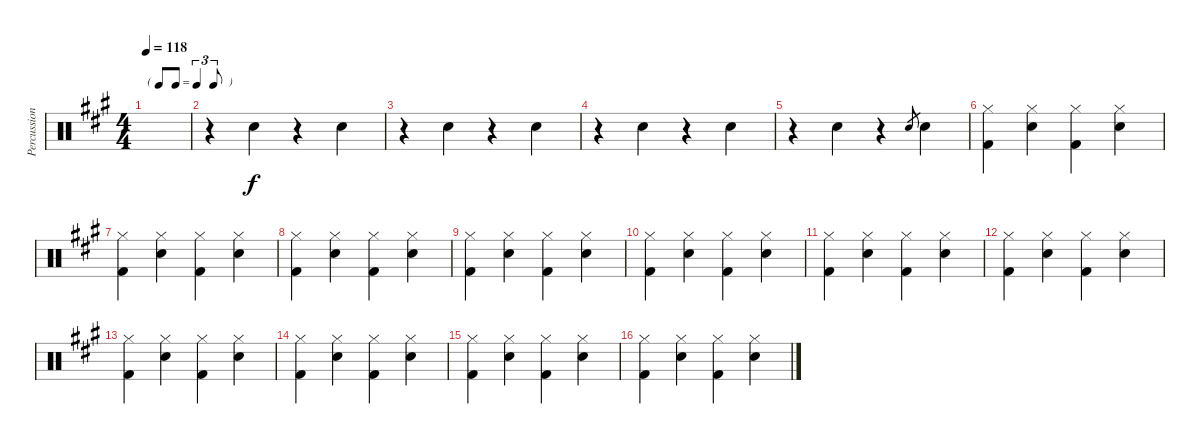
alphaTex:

\track ("Percussion" "Percussion") {instrument percussion}
\staff {score}
\articulation defaults
\ts (4 4)
\tf triplet8th
\tempo 118
\clef neutral
\ks a
|
r.4 "Snare (hit) 2".4 r.4 "Snare (hit) 2".4 |
r.4 "Snare (hit) 2".4 r.4 "Snare (hit) 2".4 |
r.4 "Snare (hit) 2".4 r.4 "Snare (hit) 2".4 |
r.4 "Snare (hit) 2".4 r.4 "Snare (hit) 2".8{gr} "Snare (hit) 2".4 |
("Hi-Hat (closed)" "Kick (hit) 2").4 ("Hi-Hat (closed)" "Snare (hit) 2").4 ("Hi-Hat (closed)" "Kick (hit) 2").4 ("Hi-Hat (closed)" "Snare (hit) 2").4 |
("Hi-Hat (closed)" "Kick (hit) 2").4 ("Hi-Hat (closed)" "Snare (hit) 2").4 ("Hi-Hat (closed)" "Kick (hit) 2").4 ("Hi-Hat (closed)" "Snare (hit) 2").4 |
("Hi-Hat (closed)" "Kick (hit) 2").4 ("Hi-Hat (closed)" "Snare (hit) 2").4 ("Hi-Hat (closed)" "Kick (hit) 2").4 ("Hi-Hat (closed)" "Snare (hit) 2").4 |
("Hi-Hat (closed)" "Kick (hit) 2").4 ("Hi-Hat (closed)" "Snare (hit) 2").4 ("Hi-Hat (closed)" "Kick (hit) 2").4 ("Hi-Hat (closed)" "Snare (hit) 2").4 |
("Hi-Hat (closed)" "Kick (hit) 2").4 ("Hi-Hat (closed)" "Snare (hit) 2").4 ("Hi-Hat (closed)" "Kick (hit) 2").4 ("Hi-Hat (closed)" "Snare (hit) 2").4 |
("Hi-Hat (closed)" "Kick (hit) 2").4 ("Hi-Hat (closed)" "Snare (hit) 2").4 ("Hi-Hat (closed)" "Kick (hit) 2").4 ("Hi-Hat (closed)" "Snare (hit) 2").4 |
("Hi-Hat (closed)" "Kick (hit) 2").4 ("Hi-Hat (closed)" "Snare (hit) 2").4 ("Hi-Hat (closed)" "Kick (hit) 2").4 ("Hi-Hat (closed)" "Snare (hit) 2").4 |
("Hi-Hat (closed)" "Kick (hit) 2").4 ("Hi-Hat (closed)" "Snare (hit) 2").4 ("Hi-Hat (closed)" "Kick (hit) 2").4 ("Hi-Hat (closed)" "Snare (hit) 2").4 |
("Hi-Hat (closed)" "Kick (hit) 2").4 ("Hi-Hat (closed)" "Snare (hit) 2").4 ("Hi-Hat (closed)" "Kick (hit) 2").4 ("Hi-Hat (closed)" "Snare (hit) 2").4 |
("Hi-Hat (closed)" "Kick (hit) 2").4 ("Hi-Hat (closed)" "Snare (hit) 2").4 ("Hi-Hat (closed)" "Kick (hit) 2").4 ("Hi-Hat (closed)" "Snare (hit) 2").4 |
("Hi-Hat (closed)" "Kick (hit) 2").4 ("Hi-Hat (closed)" "Snare (hit) 2").4 ("Hi-Hat (closed)" "Kick (hit) 2").4 ("Hi-Hat (closed)" "Snare (hit) 2").4
